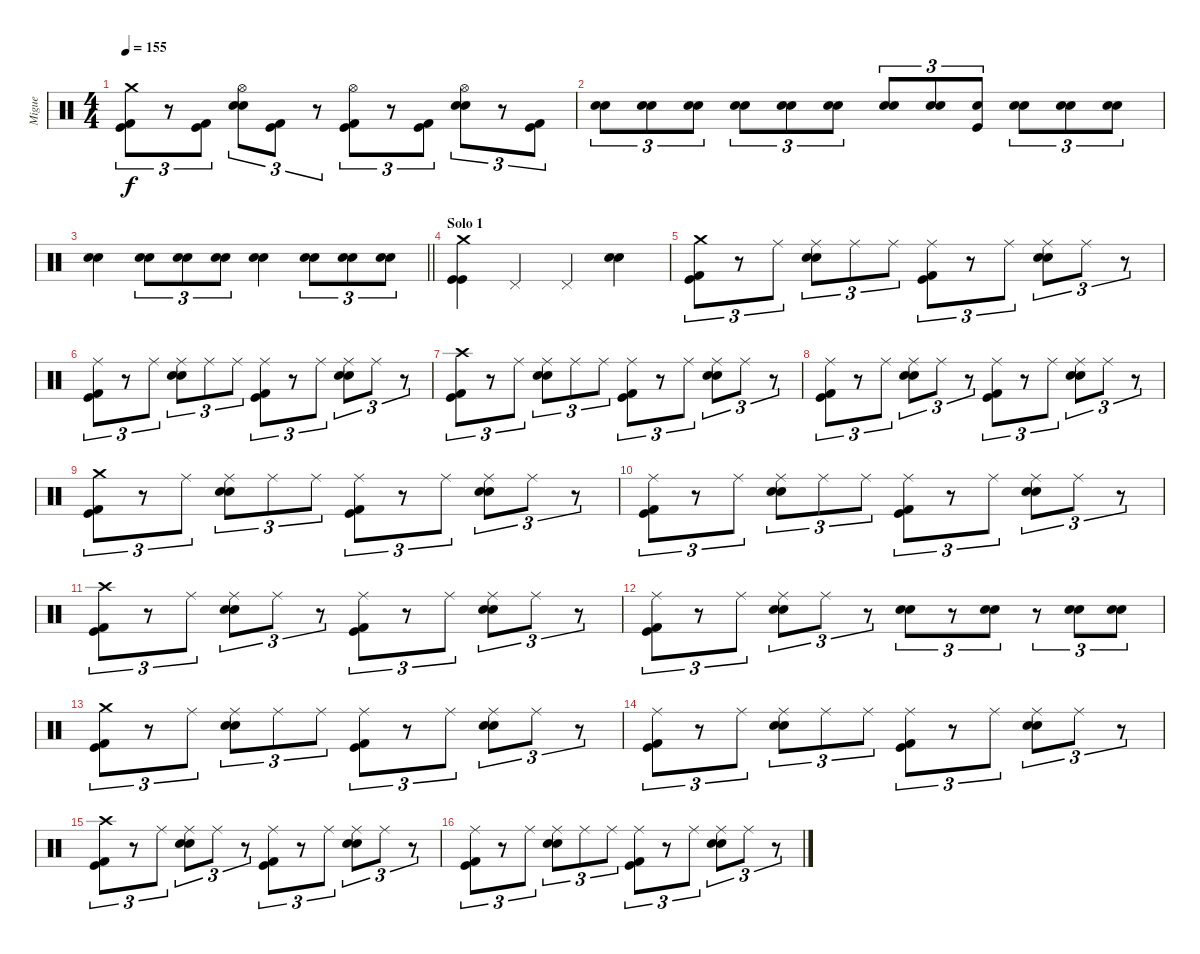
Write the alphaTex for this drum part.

\track ("Migue" "Migue") {instrument percussion}
\staff {score}
\articulation defaults
\ts (4 4)
\tempo 155
\clef neutral
\ks c
("Crash medium (hit)" "Kick (hit) 2" "Kick (hit)").8{tu (3 2) dy f} r.8{tu (3 2)} ("Kick (hit) 2" "Kick (hit)").8{tu (3 2)} ("Hi-Hat (open)" "Snare (hit) 2" "Snare (hit) 2").8{tu (3 2)} ("Kick (hit) 2" "Kick (hit)").8{tu (3 2)} r.8{tu (3 2)} ("Hi-Hat (open)" "Kick (hit) 2" "Kick (hit)").8{tu (3 2)} r.8{tu (3 2)} ("Kick (hit) 2" "Kick (hit)").8{tu (3 2)} ("Hi-Hat (open)" "Snare (hit) 2" "Snare (hit) 2").8{tu (3 2)} r.8{tu (3 2)} ("Kick (hit) 2" "Kick (hit)").8{tu (3 2)} |
("Snare (hit) 2" "Snare (hit) 2").8{tu (3 2)} ("Snare (hit) 2" "Snare (hit) 2").8{tu (3 2)} ("Snare (hit) 2" "Snare (hit) 2").8{tu (3 2)} ("Snare (hit) 2" "Snare (hit) 2").8{tu (3 2)} ("Snare (hit) 2" "Snare (hit) 2").8{tu (3 2)} ("Snare (hit) 2" "Snare (hit) 2").8{tu (3 2)} ("Snare (hit) 2" "Snare (hit) 2").8{tu (3 2)} ("Snare (hit) 2" "Snare (hit) 2").8{tu (3 2)} ("Snare (hit) 2" "Kick (hit)").8{tu (3 2)} ("Snare (hit) 2" "Snare (hit) 2").8{tu (3 2)} ("Snare (hit) 2" "Snare (hit) 2").8{tu (3 2)} ("Snare (hit) 2" "Snare (hit) 2").8{tu (3 2)} |
\barLineRight lightlight
("Snare (hit) 2" "Snare (hit) 2").4 ("Snare (hit) 2" "Snare (hit) 2").8{tu (3 2)} ("Snare (hit) 2" "Snare (hit) 2").8{tu (3 2)} ("Snare (hit) 2" "Snare (hit) 2").8{tu (3 2)} ("Snare (hit) 2" "Snare (hit) 2").4 ("Snare (hit) 2" "Snare (hit) 2").8{tu (3 2)} ("Snare (hit) 2" "Snare (hit) 2").8{tu (3 2)} ("Snare (hit) 2" "Snare (hit) 2").8{tu (3 2)} |
\section ("" "Solo 1")
("Crash medium (hit)" "Kick (hit)" "Kick (hit)").4 "Pedal Hi-Hat (hit)".4 "Pedal Hi-Hat (hit)".4 ("Snare (hit) 2" "Snare (hit) 2").4 |
("Crash medium (hit)" "Kick (hit) 2" "Kick (hit)").8{tu (3 2)} r.8{tu (3 2)} "Ride (middle)".8{tu (3 2)} ("Ride (middle)" "Snare (hit) 2" "Snare (hit) 2").8{tu (3 2)} "Ride (middle)".8{tu (3 2)} "Ride (middle)".8{tu (3 2)} ("Ride (middle)" "Kick (hit) 2" "Kick (hit)").8{tu (3 2)} r.8{tu (3 2)} "Ride (middle)".8{tu (3 2)} ("Ride (middle)" "Snare (hit) 2" "Snare (hit) 2").8{tu (3 2)} "Ride (middle)".8{tu (3 2)} r.8{tu (3 2)} |
("Ride (middle)" "Kick (hit) 2" "Kick (hit)").8{tu (3 2)} r.8{tu (3 2)} "Ride (middle)".8{tu (3 2)} ("Ride (middle)" "Snare (hit) 2" "Snare (hit) 2").8{tu (3 2)} "Ride (middle)".8{tu (3 2)} "Ride (middle)".8{tu (3 2)} ("Ride (middle)" "Kick (hit) 2" "Kick (hit)").8{tu (3 2)} r.8{tu (3 2)} "Ride (middle)".8{tu (3 2)} ("Ride (middle)" "Snare (hit) 2" "Snare (hit) 2").8{tu (3 2)} "Ride (middle)".8{tu (3 2)} r.8{tu (3 2)} |
("Crash high (hit)" "Kick (hit) 2" "Kick (hit)").8{tu (3 2)} r.8{tu (3 2)} "Ride (middle)".8{tu (3 2)} ("Ride (middle)" "Snare (hit) 2" "Snare (hit) 2").8{tu (3 2)} "Ride (middle)".8{tu (3 2)} "Ride (middle)".8{tu (3 2)} ("Ride (middle)" "Kick (hit) 2" "Kick (hit)").8{tu (3 2)} r.8{tu (3 2)} "Ride (middle)".8{tu (3 2)} ("Ride (middle)" "Snare (hit) 2" "Snare (hit) 2").8{tu (3 2)} "Ride (middle)".8{tu (3 2)} r.8{tu (3 2)} |
("Ride (middle)" "Kick (hit) 2" "Kick (hit)").8{tu (3 2)} r.8{tu (3 2)} "Ride (middle)".8{tu (3 2)} ("Ride (middle)" "Snare (hit) 2" "Snare (hit) 2").8{tu (3 2)} "Ride (middle)".8{tu (3 2)} r.8{tu (3 2)} ("Ride (middle)" "Kick (hit) 2" "Kick (hit)").8{tu (3 2)} r.8{tu (3 2)} "Ride (middle)".8{tu (3 2)} ("Ride (middle)" "Snare (hit) 2" "Snare (hit) 2").8{tu (3 2)} "Ride (middle)".8{tu (3 2)} r.8{tu (3 2)} |
("Crash medium (hit)" "Kick (hit) 2" "Kick (hit)").8{tu (3 2)} r.8{tu (3 2)} "Ride (middle)".8{tu (3 2)} ("Ride (middle)" "Snare (hit) 2" "Snare (hit) 2").8{tu (3 2)} "Ride (middle)".8{tu (3 2)} "Ride (middle)".8{tu (3 2)} ("Ride (middle)" "Kick (hit) 2" "Kick (hit)").8{tu (3 2)} r.8{tu (3 2)} "Ride (middle)".8{tu (3 2)} ("Ride (middle)" "Snare (hit) 2" "Snare (hit) 2").8{tu (3 2)} "Ride (middle)".8{tu (3 2)} r.8{tu (3 2)} |
("Ride (middle)" "Kick (hit) 2" "Kick (hit)").8{tu (3 2)} r.8{tu (3 2)} "Ride (middle)".8{tu (3 2)} ("Ride (middle)" "Snare (hit) 2" "Snare (hit) 2").8{tu (3 2)} "Ride (middle)".8{tu (3 2)} "Ride (middle)".8{tu (3 2)} ("Ride (middle)" "Kick (hit) 2" "Kick (hit)").8{tu (3 2)} r.8{tu (3 2)} "Ride (middle)".8{tu (3 2)} ("Ride (middle)" "Snare (hit) 2" "Snare (hit) 2").8{tu (3 2)} "Ride (middle)".8{tu (3 2)} r.8{tu (3 2)} |
("Crash high (hit)" "Kick (hit) 2" "Kick (hit)").8{tu (3 2)} r.8{tu (3 2)} "Ride (middle)".8{tu (3 2)} ("Ride (middle)" "Snare (hit) 2" "Snare (hit) 2").8{tu (3 2)} "Ride (middle)".8{tu (3 2)} r.8{tu (3 2)} ("Ride (middle)" "Kick (hit) 2" "Kick (hit)").8{tu (3 2)} r.8{tu (3 2)} "Ride (middle)".8{tu (3 2)} ("Ride (middle)" "Snare (hit) 2" "Snare (hit) 2").8{tu (3 2)} "Ride (middle)".8{tu (3 2)} r.8{tu (3 2)} |
("Ride (middle)" "Kick (hit) 2" "Kick (hit)").8{tu (3 2)} r.8{tu (3 2)} "Ride (middle)".8{tu (3 2)} ("Ride (middle)" "Snare (hit) 2" "Snare (hit) 2").8{tu (3 2)} "Ride (middle)".8{tu (3 2)} r.8{tu (3 2)} ("Snare (hit) 2" "Snare (hit) 2").8{tu (3 2)} r.8{tu (3 2)} ("Snare (hit) 2" "Snare (hit) 2").8{tu (3 2)} r.8{tu (3 2)} ("Snare (hit) 2" "Snare (hit) 2").8{tu (3 2)} ("Snare (hit) 2" "Snare (hit) 2").8{tu (3 2)} |
("Crash medium (hit)" "Kick (hit) 2" "Kick (hit)").8{tu (3 2)} r.8{tu (3 2)} "Ride (middle)".8{tu (3 2)} ("Ride (middle)" "Snare (hit) 2" "Snare (hit) 2").8{tu (3 2)} "Ride (middle)".8{tu (3 2)} "Ride (middle)".8{tu (3 2)} ("Ride (middle)" "Kick (hit) 2" "Kick (hit)").8{tu (3 2)} r.8{tu (3 2)} "Ride (middle)".8{tu (3 2)} ("Ride (middle)" "Snare (hit) 2" "Snare (hit) 2").8{tu (3 2)} "Ride (middle)".8{tu (3 2)} r.8{tu (3 2)} |
("Ride (middle)" "Kick (hit) 2" "Kick (hit)").8{tu (3 2)} r.8{tu (3 2)} "Ride (middle)".8{tu (3 2)} ("Ride (middle)" "Snare (hit) 2" "Snare (hit) 2").8{tu (3 2)} "Ride (middle)".8{tu (3 2)} "Ride (middle)".8{tu (3 2)} ("Ride (middle)" "Kick (hit) 2" "Kick (hit)").8{tu (3 2)} r.8{tu (3 2)} "Ride (middle)".8{tu (3 2)} ("Ride (middle)" "Snare (hit) 2" "Snare (hit) 2").8{tu (3 2)} "Ride (middle)".8{tu (3 2)} r.8{tu (3 2)} |
("Crash high (hit)" "Kick (hit) 2" "Kick (hit)").8{tu (3 2)} r.8{tu (3 2)} "Ride (middle)".8{tu (3 2)} ("Ride (middle)" "Snare (hit) 2" "Snare (hit) 2").8{tu (3 2)} "Ride (middle)".8{tu (3 2)} r.8{tu (3 2)} ("Ride (middle)" "Kick (hit) 2" "Kick (hit)").8{tu (3 2)} r.8{tu (3 2)} "Ride (middle)".8{tu (3 2)} ("Ride (middle)" "Snare (hit) 2" "Snare (hit) 2").8{tu (3 2)} "Ride (middle)".8{tu (3 2)} r.8{tu (3 2)} |
("Ride (middle)" "Kick (hit) 2" "Kick (hit)").8{tu (3 2)} r.8{tu (3 2)} "Ride (middle)".8{tu (3 2)} ("Ride (middle)" "Snare (hit) 2" "Snare (hit) 2").8{tu (3 2)} "Ride (middle)".8{tu (3 2)} "Ride (middle)".8{tu (3 2)} ("Ride (middle)" "Kick (hit) 2" "Kick (hit)").8{tu (3 2)} r.8{tu (3 2)} "Ride (middle)".8{tu (3 2)} ("Ride (middle)" "Snare (hit) 2" "Snare (hit) 2").8{tu (3 2)} "Ride (middle)".8{tu (3 2)} r.8{tu (3 2)}
